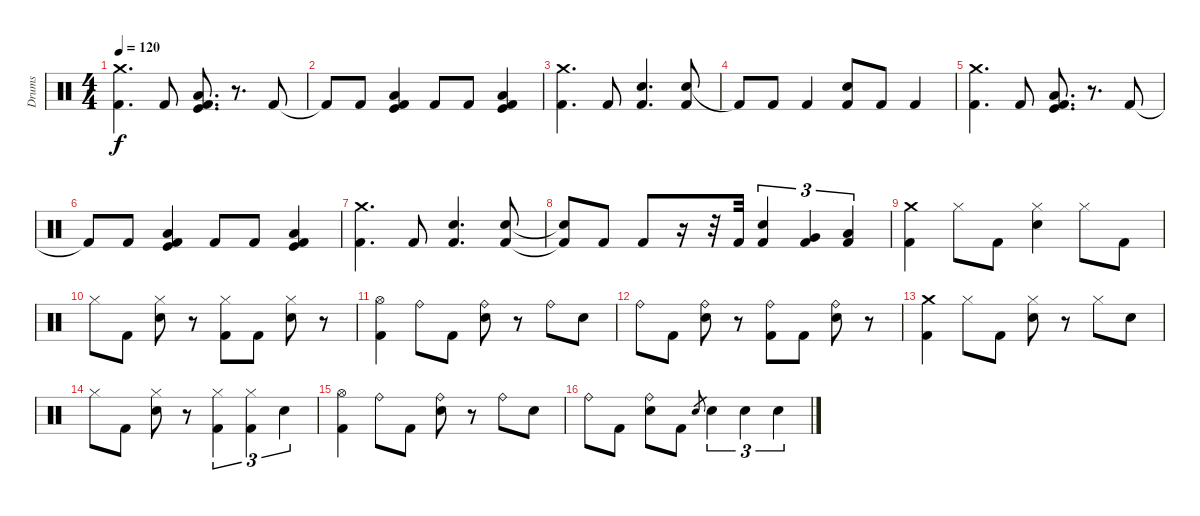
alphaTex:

\track ("Drums" "Drums") {instrument percussion}
\staff {score}
\articulation defaults
\ts (4 4)
\tempo 120
\clef neutral
\ks c
("Crash medium (hit)" "Kick (hit) 2").4{d dy f} "Kick (hit) 2".8 ("Low Floor Tom (hit)" "Kick (hit)" "Kick (hit) 2").8{d} r.8{d} "Kick (hit) 2".8 |
"Kick (hit) 2"{t}.8 "Kick (hit) 2".8 ("Low Floor Tom (hit)" "Kick (hit)" "Kick (hit) 2").4 "Kick (hit) 2".8 "Kick (hit) 2".8 ("Low Floor Tom (hit)" "Kick (hit)" "Kick (hit) 2").4 |
("Crash medium (hit)" "Kick (hit) 2").4{d} "Kick (hit) 2".8 ("Snare (hit) 2" "Kick (hit) 2").4{d} ("Snare (hit) 2" "Kick (hit) 2").8 |
"Kick (hit) 2"{t}.8 "Kick (hit) 2".8 "Kick (hit) 2".4 ("Snare (hit) 2" "Kick (hit) 2").8 "Kick (hit) 2".8 "Kick (hit) 2".4 |
("Crash medium (hit)" "Kick (hit) 2").4{d} "Kick (hit) 2".8 ("Low Floor Tom (hit)" "Kick (hit)" "Kick (hit) 2").8{d} r.8{d} "Kick (hit) 2".8 |
"Kick (hit) 2"{t}.8 "Kick (hit) 2".8 ("Low Floor Tom (hit)" "Kick (hit)" "Kick (hit) 2").4 "Kick (hit) 2".8 "Kick (hit) 2".8 ("Low Floor Tom (hit)" "Kick (hit)" "Kick (hit) 2").4 |
("Crash medium (hit)" "Kick (hit) 2").4{d} "Kick (hit) 2".8 ("Snare (hit) 2" "Kick (hit) 2").4{d} ("Snare (hit) 2" "Kick (hit) 2").8 |
("Electric Snare (hit)"{t} "Kick (hit) 2"{t}).8 "Kick (hit) 2".8 "Kick (hit) 2".8 r.16 r.32 "Kick (hit) 2".32 ("Snare (hit) 2" "Kick (hit) 2").4{tu (3 2)} ("Very Low Tom (hit)" "Kick (hit) 2").4{tu (3 2)} ("Low Floor Tom (hit)" "Kick (hit) 2").4{tu (3 2)} |
("Crash medium (hit)" "Kick (hit) 2").4 "Hi-Hat (closed)".8 "Kick (hit) 2".8 ("Hi-Hat (closed)" "Snare (hit) 2").4 "Hi-Hat (closed)".8 "Kick (hit) 2".8 |
"Hi-Hat (closed)".8 "Kick (hit) 2".8 ("Hi-Hat (closed)" "Snare (hit) 2").8 r.8 ("Hi-Hat (closed)" "Kick (hit) 2").8 "Kick (hit) 2".8 ("Hi-Hat (closed)" "Snare (hit) 2").8 r.8 |
("Hi-Hat (open)" "Kick (hit) 2").4 "Ride (bell)".8 "Kick (hit) 2".8 ("Ride (bell)" "Snare (hit) 2").8 r.8 "Ride (bell)".8 "Snare (hit) 2".8 |
"Ride (bell)".8 "Kick (hit) 2".8 ("Ride (bell)" "Snare (hit) 2").8 r.8 ("Ride (bell)" "Kick (hit) 2").8 "Kick (hit) 2".8 ("Ride (bell)" "Snare (hit) 2").8 r.8 |
("Crash medium (hit)" "Kick (hit) 2").4 "Hi-Hat (closed)".8 "Kick (hit) 2".8 ("Hi-Hat (closed)" "Snare (hit) 2").8 r.8 "Hi-Hat (closed)".8 "Snare (hit) 2".8 |
"Hi-Hat (closed)".8 "Kick (hit) 2".8 ("Hi-Hat (closed)" "Snare (hit) 2").8 r.8 ("Hi-Hat (closed)" "Kick (hit) 2").4{tu (3 2)} ("Hi-Hat (closed)" "Kick (hit) 2").4{tu (3 2)} "Snare (hit) 2".4{tu (3 2)} |
("Hi-Hat (open)" "Kick (hit) 2").4 "Ride (bell)".8 "Kick (hit) 2".8 ("Ride (bell)" "Snare (hit) 2").8 r.8 "Ride (bell)".8 "Snare (hit) 2".8 |
"Ride (bell)".8 "Kick (hit) 2".8 ("Ride (bell)" "Snare (hit) 2").8 "Kick (hit) 2".8 "Electric Snare (hit)".8{gr} "Snare (hit) 2".4{tu (3 2)} "Snare (hit) 2".4{tu (3 2)} "Snare (hit) 2".4{tu (3 2)}
